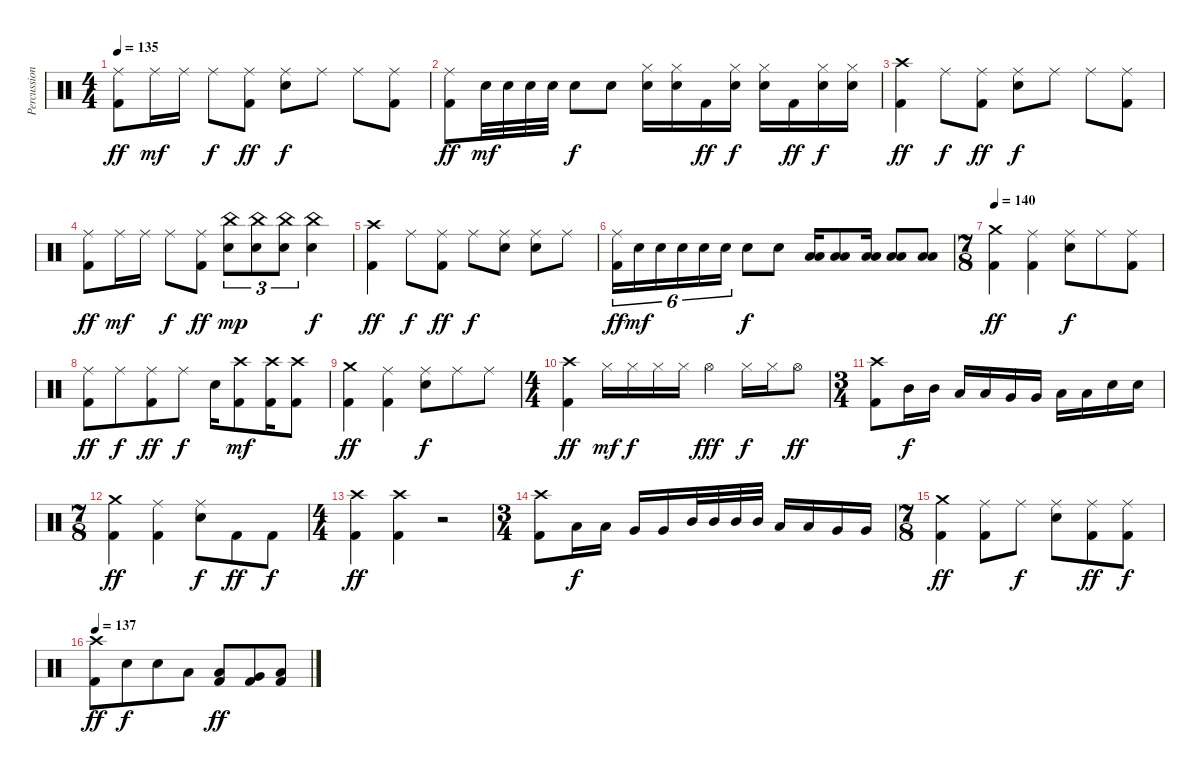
\track ("Percussion" "Percussion") {instrument percussion}
\staff {score}
\articulation defaults
\ts (4 4)
\tempo 135
\clef neutral
\ks c
("Kick (hit) 2" "Ride (middle)").8{dy ff} "Ride (middle)".16{dy mf} "Ride (middle)".16 "Ride (middle)".8{dy f} ("Kick (hit) 2" "Ride (middle)").8{dy ff} ("Snare (hit) 2" "Ride (middle)").8{dy f} "Ride (middle)".8 "Ride (middle)".8 ("Kick (hit) 2" "Ride (middle)").8 |
("Kick (hit) 2" "Ride (middle)").8{dy ff} "Snare (hit) 2".32{dy mf} "Snare (hit) 2".32 "Snare (hit) 2".32 "Snare (hit) 2".32 "Snare (hit) 2".8{dy f} "Snare (hit) 2".8 ("Snare (hit) 2" "Hi-Hat (closed)").16 ("Snare (hit) 2" "Hi-Hat (closed)").16 "Kick (hit) 2".16{dy ff} ("Snare (hit) 2" "Hi-Hat (closed)").16{dy f} ("Snare (hit) 2" "Hi-Hat (closed)").16 "Kick (hit) 2".16{dy ff} ("Snare (hit) 2" "Hi-Hat (closed)").16{dy f} ("Snare (hit) 2" "Hi-Hat (closed)").16 |
("Kick (hit) 2" "Crash high (hit)").4{dy ff} "Ride (middle)".8{dy f} ("Kick (hit) 2" "Ride (middle)").8{dy ff} ("Snare (hit) 2" "Ride (middle)").8{dy f} "Ride (middle)".8 "Ride (middle)".8 ("Kick (hit) 2" "Ride (middle)").8 |
("Kick (hit) 2" "Ride (middle)").8{dy ff} "Ride (middle)".16{dy mf} "Ride (middle)".16 "Ride (middle)".8{dy f} ("Kick (hit) 2" "Ride (middle)").8{dy ff} ("Snare (hit) 2" "China (hit)").8{tu (3 2) dy mp} ("Snare (hit) 2" "China (hit)").8{tu (3 2)} ("Snare (hit) 2" "China (hit)").8{tu (3 2)} ("Snare (hit) 2" "China (hit)").4{dy f} |
("Kick (hit) 2" "Crash high (hit)").4{dy ff} "Ride (middle)".8{dy f} ("Kick (hit) 2" "Ride (middle)").8{dy ff} "Ride (middle)".8{dy f} ("Snare (hit) 2" "Ride (middle)").8 ("Snare (hit) 2" "Ride (middle)").8 "Ride (middle)".8 |
("Kick (hit) 2" "Ride (middle)").16{tu (6 4) dy ff} "Snare (hit) 2".16{tu (6 4) dy mf} "Snare (hit) 2".16{tu (6 4)} "Snare (hit) 2".16{tu (6 4)} "Snare (hit) 2".16{tu (6 4)} "Snare (hit) 2".16{tu (6 4)} "Snare (hit) 2".8{dy f} "Snare (hit) 2".8 ("Low Floor Tom (hit)" "Low Tom (hit)").16 ("Low Floor Tom (hit)" "Low Tom (hit)").8 ("Low Floor Tom (hit)" "Low Tom (hit)").16 ("Low Floor Tom (hit)" "Low Tom (hit)").8 ("Low Floor Tom (hit)" "Low Tom (hit)").8 |
\ts (7 8)
\tempo 140
("Kick (hit) 2" "Crash medium (hit)").4{dy ff} ("Kick (hit) 2" "Ride (middle)").4 ("Snare (hit) 2" "Ride (middle)").8{dy f} "Ride (middle)".8 ("Kick (hit) 2" "Ride (middle)").8 |
("Kick (hit) 2" "Ride (middle)").8{dy ff} "Ride (middle)".8{dy f} ("Kick (hit) 2" "Ride (middle)").8{dy ff} "Ride (middle)".8{dy f} "Snare (hit) 2".16 ("Kick (hit) 2" "Crash high (hit)").8{dy mf} ("Kick (hit) 2" "Crash high (hit)").16 ("Kick (hit) 2" "Crash high (hit)").8 |
("Kick (hit) 2" "Crash medium (hit)").4{dy ff} ("Kick (hit) 2" "Ride (middle)").4 ("Snare (hit) 2" "Ride (middle)").8{dy f} "Ride (middle)".8 "Ride (middle)".8 |
\ts (4 4)
("Kick (hit) 2" "Crash high (hit)").4{dy ff} "Hi-Hat (closed)".16{dy mf} "Hi-Hat (closed)".16{dy f} "Hi-Hat (closed)".16 "Hi-Hat (closed)".16 "Hi-Hat (open)".4{dy fff} "Hi-Hat (closed)".16{dy f} "Hi-Hat (closed)".16 "Hi-Hat (open)".8{dy ff} |
\ts (3 4)
("Kick (hit) 2" "Crash high (hit)").8 "Mid Tom (hit)".16{dy f} "Mid Tom (hit)".16 "Low Tom (hit)".16 "Low Tom (hit)".16 "Very Low Tom (hit)".16 "Very Low Tom (hit)".16 "Low Floor Tom (hit)".16 "Low Floor Tom (hit)".16 "Snare (hit) 2".16 "Snare (hit) 2".16 |
\ts (7 8)
("Kick (hit) 2" "Crash medium (hit)").4{dy ff} ("Kick (hit) 2" "Ride (middle)").4 ("Snare (hit) 2" "Ride (middle)").8{dy f} "Kick (hit) 2".8{dy ff} "Kick (hit) 2".8{dy f} |
\ts (4 4)
("Kick (hit) 2" "Crash high (hit)").4{dy ff} ("Kick (hit) 2" "Crash high (hit)").4 r.2 |
\ts (3 4)
("Kick (hit) 2" "Crash high (hit)").8 "Low Tom (hit)".16{dy f} "Low Tom (hit)".16 "Very Low Tom (hit)".16 "Very Low Tom (hit)".16 "Mid Tom (hit)".32 "Mid Tom (hit)".32 "Mid Tom (hit)".32 "Mid Tom (hit)".32 "Low Tom (hit)".16 "Low Tom (hit)".16 "Very Low Tom (hit)".16 "Very Low Tom (hit)".16 |
\ts (7 8)
("Kick (hit) 2" "Crash medium (hit)").4{dy ff} ("Kick (hit) 2" "Ride (middle)").8 "Ride (middle)".8{dy f} ("Snare (hit) 2" "Ride (middle)").8 ("Kick (hit) 2" "Ride (middle)").8{dy ff} ("Kick (hit) 2" "Ride (middle)").8{dy f} |
\tempo 137
("Kick (hit) 2" "Crash high (hit)").8{dy ff} "Snare (hit) 2".8{dy f} "Snare (hit) 2".8 "Low Tom (hit)".8 ("Kick (hit) 2" "Low Tom (hit)").8{dy ff} ("Kick (hit) 2" "Very Low Tom (hit)").8 ("Kick (hit) 2" "Low Floor Tom (hit)").8
